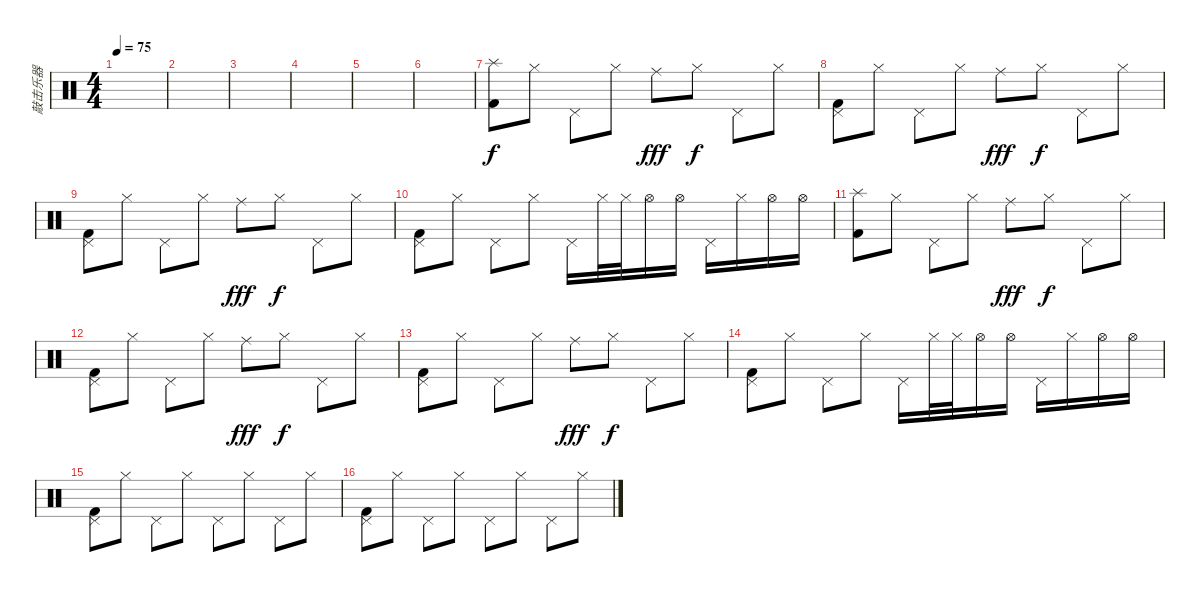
\track ("敲击乐器" "敲击乐器") {instrument percussion}
\staff {score}
\articulation defaults
\ts (4 4)
\tempo 75
\clef neutral
\ks c
|
|
|
|
|
|
("Splash (hit)" "Kick (hit) 2").8 "Hi-Hat (closed)".8 "Pedal Hi-Hat (hit)".8 "Hi-Hat (closed)".8 "Ride (middle)".8{dy fff} "Hi-Hat (closed)".8{dy f} "Pedal Hi-Hat (hit)".8 "Hi-Hat (closed)".8 |
("Pedal Hi-Hat (hit)" "Kick (hit) 2").8 "Hi-Hat (closed)".8 "Pedal Hi-Hat (hit)".8 "Hi-Hat (closed)".8 "Ride (middle)".8{dy fff} "Hi-Hat (closed)".8{dy f} "Pedal Hi-Hat (hit)".8 "Hi-Hat (closed)".8 |
("Pedal Hi-Hat (hit)" "Kick (hit) 2").8 "Hi-Hat (closed)".8 "Pedal Hi-Hat (hit)".8 "Hi-Hat (closed)".8 "Ride (middle)".8{dy fff} "Hi-Hat (closed)".8{dy f} "Pedal Hi-Hat (hit)".8 "Hi-Hat (closed)".8 |
("Pedal Hi-Hat (hit)" "Kick (hit) 2").8 "Hi-Hat (closed)".8 "Pedal Hi-Hat (hit)".8 "Hi-Hat (closed)".8 "Pedal Hi-Hat (hit)".16 "Hi-Hat (closed)".32 "Hi-Hat (closed)".32 "Hi-Hat (open)".16 "Hi-Hat (open)".16 "Pedal Hi-Hat (hit)".16 "Hi-Hat (closed)".16 "Hi-Hat (open)".16 "Hi-Hat (open)".16 |
("Splash (hit)" "Kick (hit) 2").8 "Hi-Hat (closed)".8 "Pedal Hi-Hat (hit)".8 "Hi-Hat (closed)".8 "Ride (middle)".8{dy fff} "Hi-Hat (closed)".8{dy f} "Pedal Hi-Hat (hit)".8 "Hi-Hat (closed)".8 |
("Pedal Hi-Hat (hit)" "Kick (hit) 2").8 "Hi-Hat (closed)".8 "Pedal Hi-Hat (hit)".8 "Hi-Hat (closed)".8 "Ride (middle)".8{dy fff} "Hi-Hat (closed)".8{dy f} "Pedal Hi-Hat (hit)".8 "Hi-Hat (closed)".8 |
("Pedal Hi-Hat (hit)" "Kick (hit) 2").8 "Hi-Hat (closed)".8 "Pedal Hi-Hat (hit)".8 "Hi-Hat (closed)".8 "Ride (middle)".8{dy fff} "Hi-Hat (closed)".8{dy f} "Pedal Hi-Hat (hit)".8 "Hi-Hat (closed)".8 |
("Pedal Hi-Hat (hit)" "Kick (hit) 2").8 "Hi-Hat (closed)".8 "Pedal Hi-Hat (hit)".8 "Hi-Hat (closed)".8 "Pedal Hi-Hat (hit)".16 "Hi-Hat (closed)".32 "Hi-Hat (closed)".32 "Hi-Hat (open)".16 "Hi-Hat (open)".16 "Pedal Hi-Hat (hit)".16 "Hi-Hat (closed)".16 "Hi-Hat (open)".16 "Hi-Hat (open)".16 |
("Pedal Hi-Hat (hit)" "Kick (hit) 2").8 "Hi-Hat (closed)".8 "Pedal Hi-Hat (hit)".8 "Hi-Hat (closed)".8 "Pedal Hi-Hat (hit)".8 "Hi-Hat (closed)".8 "Pedal Hi-Hat (hit)".8 "Hi-Hat (closed)".8 |
("Pedal Hi-Hat (hit)" "Kick (hit) 2").8 "Hi-Hat (closed)".8 "Pedal Hi-Hat (hit)".8 "Hi-Hat (closed)".8 "Pedal Hi-Hat (hit)".8 "Hi-Hat (closed)".8 "Pedal Hi-Hat (hit)".8 "Hi-Hat (closed)".8
